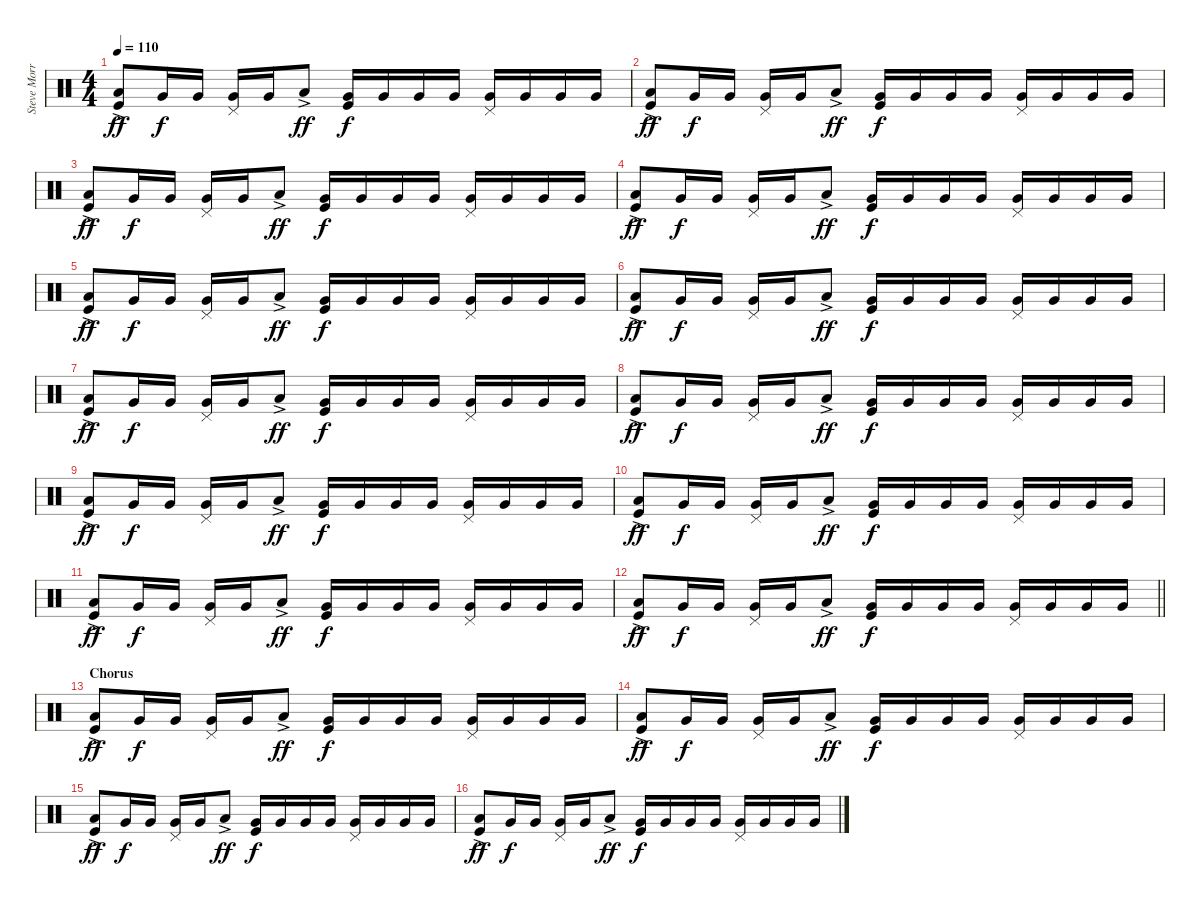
\track ("Steve Morris Drums" "Steve Morr") {instrument percussion}
\staff {score}
\articulation defaults
\ts (4 4)
\tempo 110
\clef neutral
\ks c
("Low Tom (hit)"{ac} "Kick (hit)").8{dy ff} "Very Low Tom (hit)".16{dy f} "Very Low Tom (hit)".16 ("Pedal Hi-Hat (hit)" "Very Low Tom (hit)").16 "Very Low Tom (hit)".16 "Low Tom (hit)"{ac}.8{dy ff} ("Very Low Tom (hit)" "Kick (hit)").16{dy f} "Very Low Tom (hit)".16 "Very Low Tom (hit)".16 "Very Low Tom (hit)".16 ("Pedal Hi-Hat (hit)" "Very Low Tom (hit)").16 "Very Low Tom (hit)".16 "Very Low Tom (hit)".16 "Very Low Tom (hit)".16 |
("Low Tom (hit)"{ac} "Kick (hit)").8{dy ff} "Very Low Tom (hit)".16{dy f} "Very Low Tom (hit)".16 ("Pedal Hi-Hat (hit)" "Very Low Tom (hit)").16 "Very Low Tom (hit)".16 "Low Tom (hit)"{ac}.8{dy ff} ("Very Low Tom (hit)" "Kick (hit)").16{dy f} "Very Low Tom (hit)".16 "Very Low Tom (hit)".16 "Very Low Tom (hit)".16 ("Pedal Hi-Hat (hit)" "Very Low Tom (hit)").16 "Very Low Tom (hit)".16 "Very Low Tom (hit)".16 "Very Low Tom (hit)".16 |
("Low Tom (hit)"{ac} "Kick (hit)").8{dy ff} "Very Low Tom (hit)".16{dy f} "Very Low Tom (hit)".16 ("Pedal Hi-Hat (hit)" "Very Low Tom (hit)").16 "Very Low Tom (hit)".16 "Low Tom (hit)"{ac}.8{dy ff} ("Very Low Tom (hit)" "Kick (hit)").16{dy f} "Very Low Tom (hit)".16 "Very Low Tom (hit)".16 "Very Low Tom (hit)".16 ("Pedal Hi-Hat (hit)" "Very Low Tom (hit)").16 "Very Low Tom (hit)".16 "Very Low Tom (hit)".16 "Very Low Tom (hit)".16 |
("Low Tom (hit)"{ac} "Kick (hit)").8{dy ff} "Very Low Tom (hit)".16{dy f} "Very Low Tom (hit)".16 ("Pedal Hi-Hat (hit)" "Very Low Tom (hit)").16 "Very Low Tom (hit)".16 "Low Tom (hit)"{ac}.8{dy ff} ("Very Low Tom (hit)" "Kick (hit)").16{dy f} "Very Low Tom (hit)".16 "Very Low Tom (hit)".16 "Very Low Tom (hit)".16 ("Pedal Hi-Hat (hit)" "Very Low Tom (hit)").16 "Very Low Tom (hit)".16 "Very Low Tom (hit)".16 "Very Low Tom (hit)".16 |
("Low Tom (hit)"{ac} "Kick (hit)").8{dy ff} "Very Low Tom (hit)".16{dy f} "Very Low Tom (hit)".16 ("Pedal Hi-Hat (hit)" "Very Low Tom (hit)").16 "Very Low Tom (hit)".16 "Low Tom (hit)"{ac}.8{dy ff} ("Very Low Tom (hit)" "Kick (hit)").16{dy f} "Very Low Tom (hit)".16 "Very Low Tom (hit)".16 "Very Low Tom (hit)".16 ("Pedal Hi-Hat (hit)" "Very Low Tom (hit)").16 "Very Low Tom (hit)".16 "Very Low Tom (hit)".16 "Very Low Tom (hit)".16 |
("Low Tom (hit)"{ac} "Kick (hit)").8{dy ff} "Very Low Tom (hit)".16{dy f} "Very Low Tom (hit)".16 ("Pedal Hi-Hat (hit)" "Very Low Tom (hit)").16 "Very Low Tom (hit)".16 "Low Tom (hit)"{ac}.8{dy ff} ("Very Low Tom (hit)" "Kick (hit)").16{dy f} "Very Low Tom (hit)".16 "Very Low Tom (hit)".16 "Very Low Tom (hit)".16 ("Pedal Hi-Hat (hit)" "Very Low Tom (hit)").16 "Very Low Tom (hit)".16 "Very Low Tom (hit)".16 "Very Low Tom (hit)".16 |
("Low Tom (hit)"{ac} "Kick (hit)").8{dy ff} "Very Low Tom (hit)".16{dy f} "Very Low Tom (hit)".16 ("Pedal Hi-Hat (hit)" "Very Low Tom (hit)").16 "Very Low Tom (hit)".16 "Low Tom (hit)"{ac}.8{dy ff} ("Very Low Tom (hit)" "Kick (hit)").16{dy f} "Very Low Tom (hit)".16 "Very Low Tom (hit)".16 "Very Low Tom (hit)".16 ("Pedal Hi-Hat (hit)" "Very Low Tom (hit)").16 "Very Low Tom (hit)".16 "Very Low Tom (hit)".16 "Very Low Tom (hit)".16 |
("Low Tom (hit)"{ac} "Kick (hit)").8{dy ff} "Very Low Tom (hit)".16{dy f} "Very Low Tom (hit)".16 ("Pedal Hi-Hat (hit)" "Very Low Tom (hit)").16 "Very Low Tom (hit)".16 "Low Tom (hit)"{ac}.8{dy ff} ("Very Low Tom (hit)" "Kick (hit)").16{dy f} "Very Low Tom (hit)".16 "Very Low Tom (hit)".16 "Very Low Tom (hit)".16 ("Pedal Hi-Hat (hit)" "Very Low Tom (hit)").16 "Very Low Tom (hit)".16 "Very Low Tom (hit)".16 "Very Low Tom (hit)".16 |
("Low Tom (hit)"{ac} "Kick (hit)").8{dy ff} "Very Low Tom (hit)".16{dy f} "Very Low Tom (hit)".16 ("Pedal Hi-Hat (hit)" "Very Low Tom (hit)").16 "Very Low Tom (hit)".16 "Low Tom (hit)"{ac}.8{dy ff} ("Very Low Tom (hit)" "Kick (hit)").16{dy f} "Very Low Tom (hit)".16 "Very Low Tom (hit)".16 "Very Low Tom (hit)".16 ("Pedal Hi-Hat (hit)" "Very Low Tom (hit)").16 "Very Low Tom (hit)".16 "Very Low Tom (hit)".16 "Very Low Tom (hit)".16 |
("Low Tom (hit)"{ac} "Kick (hit)").8{dy ff} "Very Low Tom (hit)".16{dy f} "Very Low Tom (hit)".16 ("Pedal Hi-Hat (hit)" "Very Low Tom (hit)").16 "Very Low Tom (hit)".16 "Low Tom (hit)"{ac}.8{dy ff} ("Very Low Tom (hit)" "Kick (hit)").16{dy f} "Very Low Tom (hit)".16 "Very Low Tom (hit)".16 "Very Low Tom (hit)".16 ("Pedal Hi-Hat (hit)" "Very Low Tom (hit)").16 "Very Low Tom (hit)".16 "Very Low Tom (hit)".16 "Very Low Tom (hit)".16 |
("Low Tom (hit)"{ac} "Kick (hit)").8{dy ff} "Very Low Tom (hit)".16{dy f} "Very Low Tom (hit)".16 ("Pedal Hi-Hat (hit)" "Very Low Tom (hit)").16 "Very Low Tom (hit)".16 "Low Tom (hit)"{ac}.8{dy ff} ("Very Low Tom (hit)" "Kick (hit)").16{dy f} "Very Low Tom (hit)".16 "Very Low Tom (hit)".16 "Very Low Tom (hit)".16 ("Pedal Hi-Hat (hit)" "Very Low Tom (hit)").16 "Very Low Tom (hit)".16 "Very Low Tom (hit)".16 "Very Low Tom (hit)".16 |
\barLineRight lightlight
("Low Tom (hit)"{ac} "Kick (hit)").8{dy ff} "Very Low Tom (hit)".16{dy f} "Very Low Tom (hit)".16 ("Pedal Hi-Hat (hit)" "Very Low Tom (hit)").16 "Very Low Tom (hit)".16 "Low Tom (hit)"{ac}.8{dy ff} ("Very Low Tom (hit)" "Kick (hit)").16{dy f} "Very Low Tom (hit)".16 "Very Low Tom (hit)".16 "Very Low Tom (hit)".16 ("Pedal Hi-Hat (hit)" "Very Low Tom (hit)").16 "Very Low Tom (hit)".16 "Very Low Tom (hit)".16 "Very Low Tom (hit)".16 |
\section ("" "Chorus")
("Low Tom (hit)"{ac} "Kick (hit)").8{dy ff} "Very Low Tom (hit)".16{dy f} "Very Low Tom (hit)".16 ("Pedal Hi-Hat (hit)" "Very Low Tom (hit)").16 "Very Low Tom (hit)".16 "Low Tom (hit)"{ac}.8{dy ff} ("Very Low Tom (hit)" "Kick (hit)").16{dy f} "Very Low Tom (hit)".16 "Very Low Tom (hit)".16 "Very Low Tom (hit)".16 ("Pedal Hi-Hat (hit)" "Very Low Tom (hit)").16 "Very Low Tom (hit)".16 "Very Low Tom (hit)".16 "Very Low Tom (hit)".16 |
("Low Tom (hit)"{ac} "Kick (hit)").8{dy ff} "Very Low Tom (hit)".16{dy f} "Very Low Tom (hit)".16 ("Pedal Hi-Hat (hit)" "Very Low Tom (hit)").16 "Very Low Tom (hit)".16 "Low Tom (hit)"{ac}.8{dy ff} ("Very Low Tom (hit)" "Kick (hit)").16{dy f} "Very Low Tom (hit)".16 "Very Low Tom (hit)".16 "Very Low Tom (hit)".16 ("Pedal Hi-Hat (hit)" "Very Low Tom (hit)").16 "Very Low Tom (hit)".16 "Very Low Tom (hit)".16 "Very Low Tom (hit)".16 |
("Low Tom (hit)"{ac} "Kick (hit)").8{dy ff} "Very Low Tom (hit)".16{dy f} "Very Low Tom (hit)".16 ("Pedal Hi-Hat (hit)" "Very Low Tom (hit)").16 "Very Low Tom (hit)".16 "Low Tom (hit)"{ac}.8{dy ff} ("Very Low Tom (hit)" "Kick (hit)").16{dy f} "Very Low Tom (hit)".16 "Very Low Tom (hit)".16 "Very Low Tom (hit)".16 ("Pedal Hi-Hat (hit)" "Very Low Tom (hit)").16 "Very Low Tom (hit)".16 "Very Low Tom (hit)".16 "Very Low Tom (hit)".16 |
("Low Tom (hit)"{ac} "Kick (hit)").8{dy ff} "Very Low Tom (hit)".16{dy f} "Very Low Tom (hit)".16 ("Pedal Hi-Hat (hit)" "Very Low Tom (hit)").16 "Very Low Tom (hit)".16 "Low Tom (hit)"{ac}.8{dy ff} ("Very Low Tom (hit)" "Kick (hit)").16{dy f} "Very Low Tom (hit)".16 "Very Low Tom (hit)".16 "Very Low Tom (hit)".16 ("Pedal Hi-Hat (hit)" "Very Low Tom (hit)").16 "Very Low Tom (hit)".16 "Very Low Tom (hit)".16 "Very Low Tom (hit)".16
